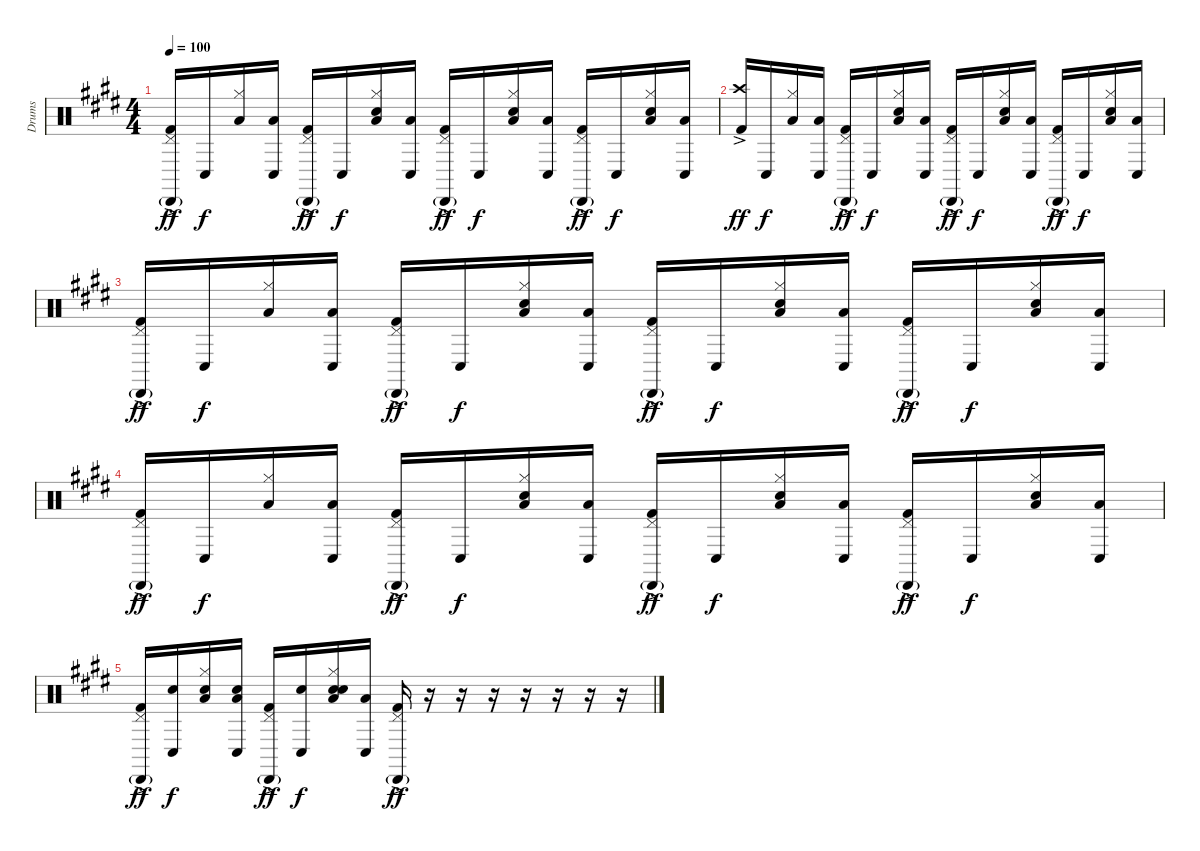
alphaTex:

\track ("Drums" "Drums") {instrument percussion}
\staff {score}
\articulation defaults
\ts (4 4)
\tempo 100
\clef neutral
\ks e
("Pedal Hi-Hat (hit)" "Cabasa (hit)"{g} "Kick (hit) 2"{ac}).16{dy ff} "Conga low (hit)".16{dy f} ("Hi-Hat (closed)" "Low Tom (hit)").16 ("Low Tom (hit)" "Conga low (hit)").16 ("Pedal Hi-Hat (hit)" "Cabasa (hit)"{g} "Kick (hit) 2"{ac}).16{dy ff} "Conga low (hit)".16{dy f} ("Hi-Hat (closed)" "Low Tom (hit)" "Hand Clap (hit)").16 ("Low Tom (hit)" "Conga low (hit)").16 ("Pedal Hi-Hat (hit)" "Cabasa (hit)"{g} "Kick (hit) 2"{ac}).16{dy ff} "Conga low (hit)".16{dy f} ("Hi-Hat (closed)" "Low Tom (hit)" "Hand Clap (hit)").16 ("Low Tom (hit)" "Conga low (hit)").16 ("Pedal Hi-Hat (hit)" "Cabasa (hit)"{g} "Kick (hit) 2"{ac}).16{dy ff} "Conga low (hit)".16{dy f} ("Hi-Hat (closed)" "Low Tom (hit)" "Hand Clap (hit)").16 ("Low Tom (hit)" "Conga low (hit)").16 |
("Crash high (hit)" "Kick (hit) 2"{ac}).16{dy ff} "Conga low (hit)".16{dy f} ("Hi-Hat (closed)" "Low Tom (hit)").16 ("Low Tom (hit)" "Conga low (hit)").16 ("Pedal Hi-Hat (hit)" "Cabasa (hit)"{g} "Kick (hit) 2"{ac}).16{dy ff} "Conga low (hit)".16{dy f} ("Hi-Hat (closed)" "Low Tom (hit)" "Hand Clap (hit)").16 ("Low Tom (hit)" "Conga low (hit)").16 ("Pedal Hi-Hat (hit)" "Cabasa (hit)"{g} "Kick (hit) 2"{ac}).16{dy ff} "Conga low (hit)".16{dy f} ("Hi-Hat (closed)" "Low Tom (hit)" "Hand Clap (hit)").16 ("Low Tom (hit)" "Conga low (hit)").16 ("Pedal Hi-Hat (hit)" "Cabasa (hit)"{g} "Kick (hit) 2"{ac}).16{dy ff} "Conga low (hit)".16{dy f} ("Hi-Hat (closed)" "Low Tom (hit)" "Hand Clap (hit)").16 ("Low Tom (hit)" "Conga low (hit)").16 |
("Pedal Hi-Hat (hit)" "Cabasa (hit)"{g} "Kick (hit) 2"{ac}).16{dy ff} "Conga low (hit)".16{dy f} ("Hi-Hat (closed)" "Low Tom (hit)").16 ("Low Tom (hit)" "Conga low (hit)").16 ("Pedal Hi-Hat (hit)" "Cabasa (hit)"{g} "Kick (hit) 2"{ac}).16{dy ff} "Conga low (hit)".16{dy f} ("Hi-Hat (closed)" "Low Tom (hit)" "Hand Clap (hit)").16 ("Low Tom (hit)" "Conga low (hit)").16 ("Pedal Hi-Hat (hit)" "Cabasa (hit)"{g} "Kick (hit) 2"{ac}).16{dy ff} "Conga low (hit)".16{dy f} ("Hi-Hat (closed)" "Low Tom (hit)" "Hand Clap (hit)").16 ("Low Tom (hit)" "Conga low (hit)").16 ("Pedal Hi-Hat (hit)" "Cabasa (hit)"{g} "Kick (hit) 2"{ac}).16{dy ff} "Conga low (hit)".16{dy f} ("Hi-Hat (closed)" "Low Tom (hit)" "Hand Clap (hit)").16 ("Low Tom (hit)" "Conga low (hit)").16 |
("Pedal Hi-Hat (hit)" "Cabasa (hit)"{g} "Kick (hit) 2"{ac}).16{dy ff} "Conga low (hit)".16{dy f} ("Hi-Hat (closed)" "Low Tom (hit)").16 ("Low Tom (hit)" "Conga low (hit)").16 ("Pedal Hi-Hat (hit)" "Cabasa (hit)"{g} "Kick (hit) 2"{ac}).16{dy ff} "Conga low (hit)".16{dy f} ("Hi-Hat (closed)" "Low Tom (hit)" "Hand Clap (hit)").16 ("Low Tom (hit)" "Conga low (hit)").16 ("Pedal Hi-Hat (hit)" "Cabasa (hit)"{g} "Kick (hit) 2"{ac}).16{dy ff} "Conga low (hit)".16{dy f} ("Hi-Hat (closed)" "Low Tom (hit)" "Hand Clap (hit)").16 ("Low Tom (hit)" "Conga low (hit)").16 ("Pedal Hi-Hat (hit)" "Cabasa (hit)"{g} "Kick (hit) 2"{ac}).16{dy ff} "Conga low (hit)".16{dy f} ("Hi-Hat (closed)" "Low Tom (hit)" "Hand Clap (hit)").16 ("Low Tom (hit)" "Conga low (hit)").16 |
("Pedal Hi-Hat (hit)" "Cabasa (hit)"{g} "Kick (hit) 2"{ac}).16{dy ff} ("Conga low (hit)" "Electric Snare (hit)").16{dy f} ("Hi-Hat (closed)" "Low Tom (hit)" "Snare (hit) 2").16 ("Low Tom (hit)" "Conga low (hit)" "Electric Snare (hit)").16 ("Pedal Hi-Hat (hit)" "Cabasa (hit)"{g} "Kick (hit) 2"{ac}).16{dy ff} ("Conga low (hit)" "Electric Snare (hit)").16{dy f} ("Hand Clap (hit)" "Hi-Hat (closed)" "Low Tom (hit)" "Electric Snare (hit)").16 ("Low Tom (hit)" "Conga low (hit)").16 ("Pedal Hi-Hat (hit)" "Cabasa (hit)"{g} "Kick (hit) 2"{ac}).16{dy ff} r.16 r.16 r.16 r.16 r.16 r.16 r.16
